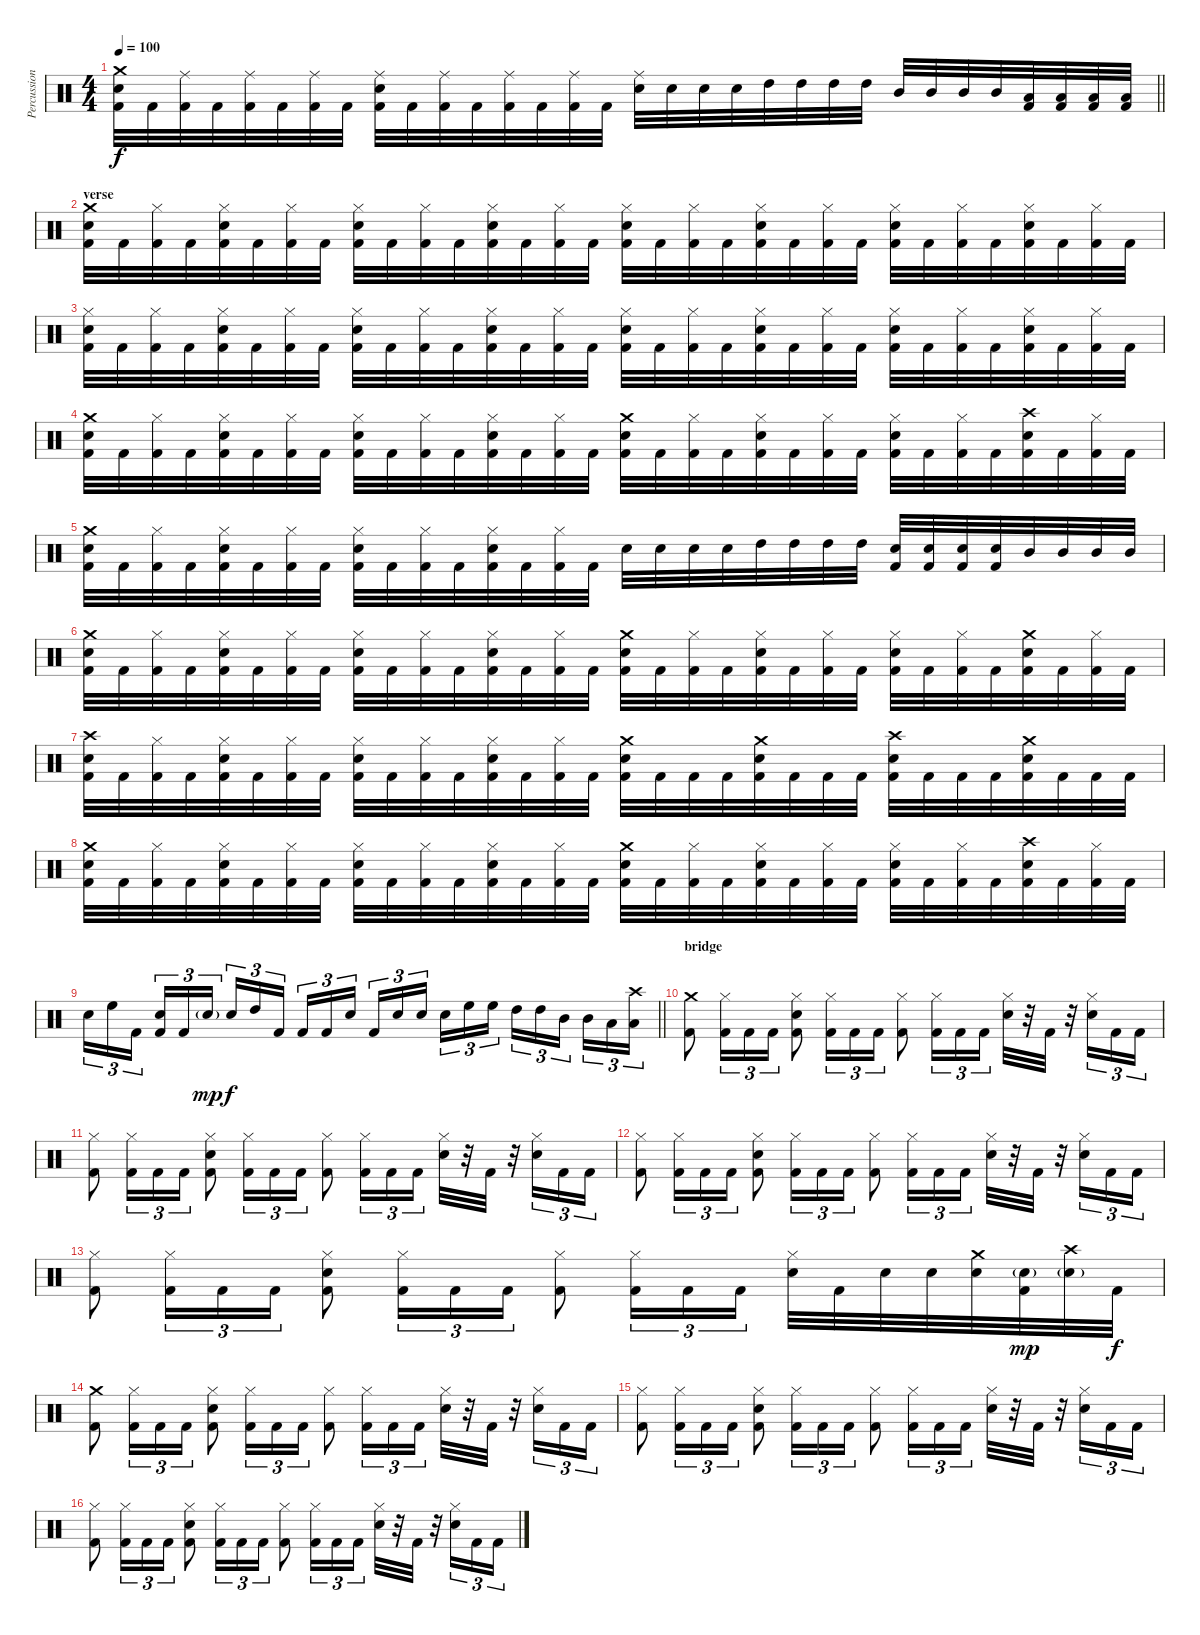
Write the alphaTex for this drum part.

\track ("Percussion" "Percussion") {instrument percussion}
\staff {score}
\articulation defaults
\ts (4 4)
\tempo 100
\clef neutral
\barLineRight lightlight
\ks c
("Crash medium (hit)" "Electric Snare (hit)" "Kick (hit) 2").32{dy f} "Kick (hit) 2".32 ("Ride (middle)" "Kick (hit) 2").32 "Kick (hit) 2".32 ("Ride (middle)" "Kick (hit) 2").32 "Kick (hit) 2".32 ("Ride (middle)" "Kick (hit) 2").32 "Kick (hit) 2".32 ("Ride (middle)" "Electric Snare (hit)" "Kick (hit) 2").32 "Kick (hit) 2".32 ("Ride (middle)" "Kick (hit) 2").32 "Kick (hit) 2".32 ("Ride (middle)" "Kick (hit) 2").32 "Kick (hit) 2".32 ("Ride (middle)" "Kick (hit) 2").32 "Kick (hit) 2".32 ("Ride (middle)" "Electric Snare (hit)").32 "Electric Snare (hit)".32 "Electric Snare (hit)".32 "Electric Snare (hit)".32 "High Tom (hit)".32 "High Tom (hit)".32 "High Tom (hit)".32 "High Tom (hit)".32 "Mid Tom (hit)".32 "Mid Tom (hit)".32 "Mid Tom (hit)".32 "Mid Tom (hit)".32 ("Low Tom (hit)" "Kick (hit) 2").32 ("Low Tom (hit)" "Kick (hit) 2").32 ("Low Tom (hit)" "Kick (hit) 2").32 ("Low Tom (hit)" "Kick (hit) 2").32 |
\section ("" "verse")
("Crash medium (hit)" "Electric Snare (hit)" "Kick (hit) 2").32 "Kick (hit) 2".32 ("Hi-Hat (closed)" "Kick (hit) 2").32 "Kick (hit) 2".32 ("Hi-Hat (closed)" "Electric Snare (hit)" "Kick (hit) 2").32 "Kick (hit) 2".32 ("Hi-Hat (closed)" "Kick (hit) 2").32 "Kick (hit) 2".32 ("Hi-Hat (closed)" "Electric Snare (hit)" "Kick (hit) 2").32 "Kick (hit) 2".32 ("Hi-Hat (closed)" "Kick (hit) 2").32 "Kick (hit) 2".32 ("Hi-Hat (closed)" "Electric Snare (hit)" "Kick (hit) 2").32 "Kick (hit) 2".32 ("Hi-Hat (closed)" "Kick (hit) 2").32 "Kick (hit) 2".32 ("Hi-Hat (closed)" "Electric Snare (hit)" "Kick (hit) 2").32 "Kick (hit) 2".32 ("Hi-Hat (closed)" "Kick (hit) 2").32 "Kick (hit) 2".32 ("Hi-Hat (closed)" "Electric Snare (hit)" "Kick (hit) 2").32 "Kick (hit) 2".32 ("Hi-Hat (closed)" "Kick (hit) 2").32 "Kick (hit) 2".32 ("Hi-Hat (closed)" "Electric Snare (hit)" "Kick (hit) 2").32 "Kick (hit) 2".32 ("Hi-Hat (closed)" "Kick (hit) 2").32 "Kick (hit) 2".32 ("Hi-Hat (closed)" "Electric Snare (hit)" "Kick (hit) 2").32 "Kick (hit) 2".32 ("Hi-Hat (closed)" "Kick (hit) 2").32 "Kick (hit) 2".32 |
("Hi-Hat (closed)" "Electric Snare (hit)" "Kick (hit) 2").32 "Kick (hit) 2".32 ("Hi-Hat (closed)" "Kick (hit) 2").32 "Kick (hit) 2".32 ("Hi-Hat (closed)" "Electric Snare (hit)" "Kick (hit) 2").32 "Kick (hit) 2".32 ("Hi-Hat (closed)" "Kick (hit) 2").32 "Kick (hit) 2".32 ("Hi-Hat (closed)" "Electric Snare (hit)" "Kick (hit) 2").32 "Kick (hit) 2".32 ("Hi-Hat (closed)" "Kick (hit) 2").32 "Kick (hit) 2".32 ("Hi-Hat (closed)" "Electric Snare (hit)" "Kick (hit) 2").32 "Kick (hit) 2".32 ("Hi-Hat (closed)" "Kick (hit) 2").32 "Kick (hit) 2".32 ("Hi-Hat (closed)" "Electric Snare (hit)" "Kick (hit) 2").32 "Kick (hit) 2".32 ("Hi-Hat (closed)" "Kick (hit) 2").32 "Kick (hit) 2".32 ("Hi-Hat (closed)" "Electric Snare (hit)" "Kick (hit) 2").32 "Kick (hit) 2".32 ("Hi-Hat (closed)" "Kick (hit) 2").32 "Kick (hit) 2".32 ("Hi-Hat (closed)" "Electric Snare (hit)" "Kick (hit) 2").32 "Kick (hit) 2".32 ("Hi-Hat (closed)" "Kick (hit) 2").32 "Kick (hit) 2".32 ("Hi-Hat (closed)" "Electric Snare (hit)" "Kick (hit) 2").32 "Kick (hit) 2".32 ("Hi-Hat (closed)" "Kick (hit) 2").32 "Kick (hit) 2".32 |
("Crash medium (hit)" "Electric Snare (hit)" "Kick (hit) 2").32 "Kick (hit) 2".32 ("Hi-Hat (closed)" "Kick (hit) 2").32 "Kick (hit) 2".32 ("Hi-Hat (closed)" "Electric Snare (hit)" "Kick (hit) 2").32 "Kick (hit) 2".32 ("Hi-Hat (closed)" "Kick (hit) 2").32 "Kick (hit) 2".32 ("Hi-Hat (closed)" "Electric Snare (hit)" "Kick (hit) 2").32 "Kick (hit) 2".32 ("Hi-Hat (closed)" "Kick (hit) 2").32 "Kick (hit) 2".32 ("Hi-Hat (closed)" "Electric Snare (hit)" "Kick (hit) 2").32 "Kick (hit) 2".32 ("Hi-Hat (closed)" "Kick (hit) 2").32 "Kick (hit) 2".32 ("Crash medium (hit)" "Electric Snare (hit)" "Kick (hit) 2").32 "Kick (hit) 2".32 ("Hi-Hat (closed)" "Kick (hit) 2").32 "Kick (hit) 2".32 ("Hi-Hat (closed)" "Electric Snare (hit)" "Kick (hit) 2").32 "Kick (hit) 2".32 ("Hi-Hat (closed)" "Kick (hit) 2").32 "Kick (hit) 2".32 ("Hi-Hat (closed)" "Electric Snare (hit)" "Kick (hit) 2").32 "Kick (hit) 2".32 ("Hi-Hat (closed)" "Kick (hit) 2").32 "Kick (hit) 2".32 ("Crash high (hit)" "Electric Snare (hit)" "Kick (hit) 2").32 "Kick (hit) 2".32 ("Hi-Hat (closed)" "Kick (hit) 2").32 "Kick (hit) 2".32 |
("Crash medium (hit)" "Electric Snare (hit)" "Kick (hit) 2").32 "Kick (hit) 2".32 ("Hi-Hat (closed)" "Kick (hit) 2").32 "Kick (hit) 2".32 ("Hi-Hat (closed)" "Electric Snare (hit)" "Kick (hit) 2").32 "Kick (hit) 2".32 ("Hi-Hat (closed)" "Kick (hit) 2").32 "Kick (hit) 2".32 ("Hi-Hat (closed)" "Electric Snare (hit)" "Kick (hit) 2").32 "Kick (hit) 2".32 ("Hi-Hat (closed)" "Kick (hit) 2").32 "Kick (hit) 2".32 ("Hi-Hat (closed)" "Electric Snare (hit)" "Kick (hit) 2").32 "Kick (hit) 2".32 ("Hi-Hat (closed)" "Kick (hit) 2").32 "Kick (hit) 2".32 "Electric Snare (hit)".32 "Electric Snare (hit)".32 "Electric Snare (hit)".32 "Electric Snare (hit)".32 "High Tom (hit)".32 "High Tom (hit)".32 "High Tom (hit)".32 "High Tom (hit)".32 ("Electric Snare (hit)" "Kick (hit) 2").32 ("Electric Snare (hit)" "Kick (hit) 2").32 ("Electric Snare (hit)" "Kick (hit) 2").32 ("Electric Snare (hit)" "Kick (hit) 2").32 "Mid Tom (hit)".32 "Mid Tom (hit)".32 "Mid Tom (hit)".32 "Mid Tom (hit)".32 |
("Crash medium (hit)" "Electric Snare (hit)" "Kick (hit) 2").32 "Kick (hit) 2".32 ("Hi-Hat (closed)" "Kick (hit) 2").32 "Kick (hit) 2".32 ("Hi-Hat (closed)" "Electric Snare (hit)" "Kick (hit) 2").32 "Kick (hit) 2".32 ("Hi-Hat (closed)" "Kick (hit) 2").32 "Kick (hit) 2".32 ("Hi-Hat (closed)" "Electric Snare (hit)" "Kick (hit) 2").32 "Kick (hit) 2".32 ("Hi-Hat (closed)" "Kick (hit) 2").32 "Kick (hit) 2".32 ("Hi-Hat (closed)" "Electric Snare (hit)" "Kick (hit) 2").32 "Kick (hit) 2".32 ("Hi-Hat (closed)" "Kick (hit) 2").32 "Kick (hit) 2".32 ("Crash medium (hit)" "Electric Snare (hit)" "Kick (hit) 2").32 "Kick (hit) 2".32 ("Hi-Hat (closed)" "Kick (hit) 2").32 "Kick (hit) 2".32 ("Hi-Hat (closed)" "Electric Snare (hit)" "Kick (hit) 2").32 "Kick (hit) 2".32 ("Hi-Hat (closed)" "Kick (hit) 2").32 "Kick (hit) 2".32 ("Hi-Hat (closed)" "Electric Snare (hit)" "Kick (hit) 2").32 "Kick (hit) 2".32 ("Hi-Hat (closed)" "Kick (hit) 2").32 "Kick (hit) 2".32 ("Crash medium (hit)" "Electric Snare (hit)" "Kick (hit) 2").32 "Kick (hit) 2".32 ("Hi-Hat (closed)" "Kick (hit) 2").32 "Kick (hit) 2".32 |
("Crash high (hit)" "Electric Snare (hit)" "Kick (hit) 2").32 "Kick (hit) 2".32 ("Hi-Hat (closed)" "Kick (hit) 2").32 "Kick (hit) 2".32 ("Hi-Hat (closed)" "Electric Snare (hit)" "Kick (hit) 2").32 "Kick (hit) 2".32 ("Hi-Hat (closed)" "Kick (hit) 2").32 "Kick (hit) 2".32 ("Hi-Hat (closed)" "Electric Snare (hit)" "Kick (hit) 2").32 "Kick (hit) 2".32 ("Hi-Hat (closed)" "Kick (hit) 2").32 "Kick (hit) 2".32 ("Hi-Hat (closed)" "Electric Snare (hit)" "Kick (hit) 2").32 "Kick (hit) 2".32 ("Hi-Hat (closed)" "Kick (hit) 2").32 "Kick (hit) 2".32 ("Crash medium (hit)" "Electric Snare (hit)" "Kick (hit) 2").32 "Kick (hit) 2".32 "Kick (hit) 2".32 "Kick (hit) 2".32 ("Crash medium (hit)" "Electric Snare (hit)" "Kick (hit) 2").32 "Kick (hit) 2".32 "Kick (hit) 2".32 "Kick (hit) 2".32 ("Crash high (hit)" "Electric Snare (hit)" "Kick (hit) 2").32 "Kick (hit) 2".32 "Kick (hit) 2".32 "Kick (hit) 2".32 ("Crash medium (hit)" "Electric Snare (hit)" "Kick (hit) 2").32 "Kick (hit) 2".32 "Kick (hit) 2".32 "Kick (hit) 2".32 |
("Crash medium (hit)" "Electric Snare (hit)" "Kick (hit) 2").32 "Kick (hit) 2".32 ("Hi-Hat (closed)" "Kick (hit) 2").32 "Kick (hit) 2".32 ("Hi-Hat (closed)" "Electric Snare (hit)" "Kick (hit) 2").32 "Kick (hit) 2".32 ("Hi-Hat (closed)" "Kick (hit) 2").32 "Kick (hit) 2".32 ("Hi-Hat (closed)" "Electric Snare (hit)" "Kick (hit) 2").32 "Kick (hit) 2".32 ("Hi-Hat (closed)" "Kick (hit) 2").32 "Kick (hit) 2".32 ("Hi-Hat (closed)" "Electric Snare (hit)" "Kick (hit) 2").32 "Kick (hit) 2".32 ("Hi-Hat (closed)" "Kick (hit) 2").32 "Kick (hit) 2".32 ("Crash medium (hit)" "Electric Snare (hit)" "Kick (hit) 2").32 "Kick (hit) 2".32 ("Hi-Hat (closed)" "Kick (hit) 2").32 "Kick (hit) 2".32 ("Hi-Hat (closed)" "Electric Snare (hit)" "Kick (hit) 2").32 "Kick (hit) 2".32 ("Hi-Hat (closed)" "Kick (hit) 2").32 "Kick (hit) 2".32 ("Hi-Hat (closed)" "Electric Snare (hit)" "Kick (hit) 2").32 "Kick (hit) 2".32 ("Hi-Hat (closed)" "Kick (hit) 2").32 "Kick (hit) 2".32 ("Crash high (hit)" "Electric Snare (hit)" "Kick (hit) 2").32 "Kick (hit) 2".32 ("Hi-Hat (closed)" "Kick (hit) 2").32 "Kick (hit) 2".32 |
\barLineRight lightlight "Electric Snare (hit)".16{tu (3 2)} "High Floor Tom (hit)".16{tu (3 2)} "Kick (hit) 2".16{tu (3 2) beam splitsecondary}
("Electric Snare (hit)" "Kick (hit) 2").16{tu (3 2)} "Kick (hit) 2".16{tu (3 2)} "Electric Snare (hit)"{g}.16{tu (3 2) dy mp} "Electric Snare (hit)".16{tu (3 2) dy f} "High Tom (hit)".16{tu (3 2)} "Kick (hit) 2".16{tu (3 2) beam splitsecondary} "Kick (hit) 2".16{tu (3 2)} "Kick (hit) 2".16{tu (3 2)} "Electric Snare (hit)".16{tu (3 2)} "Kick (hit) 2".16{tu (3 2)} "Electric Snare (hit)".16{tu (3 2)} "Electric Snare (hit)".16{tu (3 2) beam splitsecondary} "Electric Snare (hit)".16{tu (3 2)} "High Floor Tom (hit)".16{tu (3 2)} "High Floor Tom (hit)".16{tu (3 2)} "High Tom (hit)".16{tu (3 2)} "High Tom (hit)".16{tu (3 2)} "Mid Tom (hit)".16{tu (3 2) beam splitsecondary} "Mid Tom (hit)".16{tu (3 2)} "Low Tom (hit)".16{tu (3 2)} ("Crash high (hit)" "Low Tom (hit)").16{tu (3 2)} |
\section ("" "bridge")
("Crash medium (hit)" "Kick (hit) 2").8 ("Hi-Hat (closed)" "Kick (hit) 2").16{tu (3 2)} "Kick (hit) 2".16{tu (3 2)} "Kick (hit) 2".16{tu (3 2)} ("Hi-Hat (closed)" "Electric Snare (hit)" "Kick (hit) 2").8 ("Hi-Hat (closed)" "Kick (hit) 2").16{tu (3 2)} "Kick (hit) 2".16{tu (3 2)} "Kick (hit) 2".16{tu (3 2)} ("Hi-Hat (closed)" "Kick (hit) 2").8 ("Hi-Hat (closed)" "Kick (hit) 2").16{tu (3 2)} "Kick (hit) 2".16{tu (3 2)} "Kick (hit) 2".16{tu (3 2)} ("Hi-Hat (closed)" "Electric Snare (hit)").32 r.32 "Kick (hit) 2".32 r.32 ("Hi-Hat (closed)" "Electric Snare (hit)").16{tu (3 2)} "Kick (hit) 2".16{tu (3 2)} "Kick (hit) 2".16{tu (3 2)} |
("Hi-Hat (closed)" "Kick (hit) 2").8 ("Hi-Hat (closed)" "Kick (hit) 2").16{tu (3 2)} "Kick (hit) 2".16{tu (3 2)} "Kick (hit) 2".16{tu (3 2)} ("Hi-Hat (closed)" "Electric Snare (hit)" "Kick (hit) 2").8 ("Hi-Hat (closed)" "Kick (hit) 2").16{tu (3 2)} "Kick (hit) 2".16{tu (3 2)} "Kick (hit) 2".16{tu (3 2)} ("Hi-Hat (closed)" "Kick (hit) 2").8 ("Hi-Hat (closed)" "Kick (hit) 2").16{tu (3 2)} "Kick (hit) 2".16{tu (3 2)} "Kick (hit) 2".16{tu (3 2)} ("Hi-Hat (closed)" "Electric Snare (hit)").32 r.32 "Kick (hit) 2".32 r.32 ("Hi-Hat (closed)" "Electric Snare (hit)").16{tu (3 2)} "Kick (hit) 2".16{tu (3 2)} "Kick (hit) 2".16{tu (3 2)} |
("Hi-Hat (closed)" "Kick (hit) 2").8 ("Hi-Hat (closed)" "Kick (hit) 2").16{tu (3 2)} "Kick (hit) 2".16{tu (3 2)} "Kick (hit) 2".16{tu (3 2)} ("Hi-Hat (closed)" "Electric Snare (hit)" "Kick (hit) 2").8 ("Hi-Hat (closed)" "Kick (hit) 2").16{tu (3 2)} "Kick (hit) 2".16{tu (3 2)} "Kick (hit) 2".16{tu (3 2)} ("Hi-Hat (closed)" "Kick (hit) 2").8 ("Hi-Hat (closed)" "Kick (hit) 2").16{tu (3 2)} "Kick (hit) 2".16{tu (3 2)} "Kick (hit) 2".16{tu (3 2)} ("Hi-Hat (closed)" "Electric Snare (hit)").32 r.32 "Kick (hit) 2".32 r.32 ("Hi-Hat (closed)" "Electric Snare (hit)").16{tu (3 2)} "Kick (hit) 2".16{tu (3 2)} "Kick (hit) 2".16{tu (3 2)} |
("Hi-Hat (closed)" "Kick (hit) 2").8 ("Hi-Hat (closed)" "Kick (hit) 2").16{tu (3 2)} "Kick (hit) 2".16{tu (3 2)} "Kick (hit) 2".16{tu (3 2)} ("Hi-Hat (closed)" "Electric Snare (hit)" "Kick (hit) 2").8 ("Hi-Hat (closed)" "Kick (hit) 2").16{tu (3 2)} "Kick (hit) 2".16{tu (3 2)} "Kick (hit) 2".16{tu (3 2)} ("Hi-Hat (closed)" "Kick (hit) 2").8 ("Hi-Hat (closed)" "Kick (hit) 2").16{tu (3 2)} "Kick (hit) 2".16{tu (3 2)} "Kick (hit) 2".16{tu (3 2)} ("Hi-Hat (closed)" "Electric Snare (hit)").32 "Kick (hit) 2".32 "Electric Snare (hit)".32 "Electric Snare (hit)".32 ("Crash medium (hit)" "Electric Snare (hit)").32 ("Electric Snare (hit)"{g} "Kick (hit) 2").32{dy mp} ("Crash high (hit)" "Electric Snare (hit)"{g}).32 "Kick (hit) 2".32{dy f} |
("Crash medium (hit)" "Kick (hit) 2").8 ("Hi-Hat (closed)" "Kick (hit) 2").16{tu (3 2)} "Kick (hit) 2".16{tu (3 2)} "Kick (hit) 2".16{tu (3 2)} ("Hi-Hat (closed)" "Electric Snare (hit)" "Kick (hit) 2").8 ("Hi-Hat (closed)" "Kick (hit) 2").16{tu (3 2)} "Kick (hit) 2".16{tu (3 2)} "Kick (hit) 2".16{tu (3 2)} ("Hi-Hat (closed)" "Kick (hit) 2").8 ("Hi-Hat (closed)" "Kick (hit) 2").16{tu (3 2)} "Kick (hit) 2".16{tu (3 2)} "Kick (hit) 2".16{tu (3 2)} ("Hi-Hat (closed)" "Electric Snare (hit)").32 r.32 "Kick (hit) 2".32 r.32 ("Hi-Hat (closed)" "Electric Snare (hit)").16{tu (3 2)} "Kick (hit) 2".16{tu (3 2)} "Kick (hit) 2".16{tu (3 2)} |
("Hi-Hat (closed)" "Kick (hit) 2").8 ("Hi-Hat (closed)" "Kick (hit) 2").16{tu (3 2)} "Kick (hit) 2".16{tu (3 2)} "Kick (hit) 2".16{tu (3 2)} ("Hi-Hat (closed)" "Electric Snare (hit)" "Kick (hit) 2").8 ("Hi-Hat (closed)" "Kick (hit) 2").16{tu (3 2)} "Kick (hit) 2".16{tu (3 2)} "Kick (hit) 2".16{tu (3 2)} ("Hi-Hat (closed)" "Kick (hit) 2").8 ("Hi-Hat (closed)" "Kick (hit) 2").16{tu (3 2)} "Kick (hit) 2".16{tu (3 2)} "Kick (hit) 2".16{tu (3 2)} ("Hi-Hat (closed)" "Electric Snare (hit)").32 r.32 "Kick (hit) 2".32 r.32 ("Hi-Hat (closed)" "Electric Snare (hit)").16{tu (3 2)} "Kick (hit) 2".16{tu (3 2)} "Kick (hit) 2".16{tu (3 2)} |
("Hi-Hat (closed)" "Kick (hit) 2").8 ("Hi-Hat (closed)" "Kick (hit) 2").16{tu (3 2)} "Kick (hit) 2".16{tu (3 2)} "Kick (hit) 2".16{tu (3 2)} ("Hi-Hat (closed)" "Electric Snare (hit)" "Kick (hit) 2").8 ("Hi-Hat (closed)" "Kick (hit) 2").16{tu (3 2)} "Kick (hit) 2".16{tu (3 2)} "Kick (hit) 2".16{tu (3 2)} ("Hi-Hat (closed)" "Kick (hit) 2").8 ("Hi-Hat (closed)" "Kick (hit) 2").16{tu (3 2)} "Kick (hit) 2".16{tu (3 2)} "Kick (hit) 2".16{tu (3 2)} ("Hi-Hat (closed)" "Electric Snare (hit)").32 r.32 "Kick (hit) 2".32 r.32 ("Hi-Hat (closed)" "Electric Snare (hit)").16{tu (3 2)} "Kick (hit) 2".16{tu (3 2)} "Kick (hit) 2".16{tu (3 2)}
